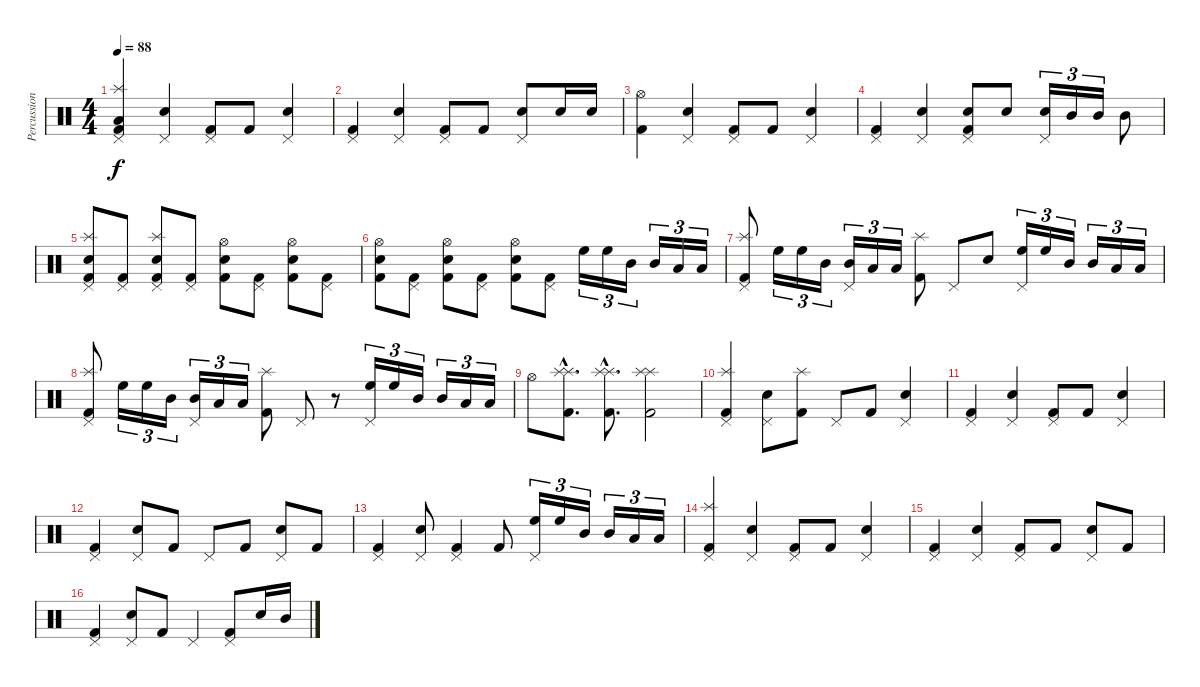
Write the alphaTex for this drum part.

\track ("Percussion" "Percussion") {instrument percussion}
\staff {score}
\articulation defaults
\ts (4 4)
\tempo 88
\clef neutral
\ks c
("Pedal Hi-Hat (hit)" "Splash (hit)" "Low Tom (hit)" "Kick (hit) 2").4{dy f} ("Pedal Hi-Hat (hit)" "Snare (hit) 2").4 ("Pedal Hi-Hat (hit)" "Kick (hit) 2").8 "Kick (hit) 2".8 ("Pedal Hi-Hat (hit)" "Snare (hit) 2").4 |
("Pedal Hi-Hat (hit)" "Kick (hit) 2").4 ("Pedal Hi-Hat (hit)" "Snare (hit) 2").4 ("Pedal Hi-Hat (hit)" "Kick (hit) 2").8 "Kick (hit) 2".8 ("Pedal Hi-Hat (hit)" "Snare (hit) 2").8 "Snare (hit) 2".16 "Snare (hit) 2".16 |
("Hi-Hat (open)" "Kick (hit) 2").4 ("Pedal Hi-Hat (hit)" "Snare (hit) 2").4 ("Pedal Hi-Hat (hit)" "Kick (hit) 2").8 "Kick (hit) 2".8 ("Pedal Hi-Hat (hit)" "Snare (hit) 2").4 |
("Pedal Hi-Hat (hit)" "Kick (hit) 2").4 ("Pedal Hi-Hat (hit)" "Snare (hit) 2").4 ("Pedal Hi-Hat (hit)" "Snare (hit) 2" "Kick (hit) 2").8 "Snare (hit) 2".8 ("Pedal Hi-Hat (hit)" "Snare (hit) 2").16{tu (3 2)} "Mid Tom (hit)".16{tu (3 2)} "Mid Tom (hit)".16{tu (3 2)} "Mid Tom (hit)".8 |
("Pedal Hi-Hat (hit)" "Splash (hit)" "Snare (hit) 2" "Kick (hit) 2").8 ("Pedal Hi-Hat (hit)" "Kick (hit) 2").8 ("Pedal Hi-Hat (hit)" "Splash (hit)" "Snare (hit) 2" "Kick (hit) 2").8 ("Pedal Hi-Hat (hit)" "Kick (hit) 2").8 ("Hi-Hat (open)" "Snare (hit) 2" "Kick (hit) 2").8 ("Pedal Hi-Hat (hit)" "Kick (hit) 2").8 ("Hi-Hat (open)" "Snare (hit) 2" "Kick (hit) 2").8 ("Pedal Hi-Hat (hit)" "Kick (hit) 2").8 |
("Hi-Hat (open)" "Snare (hit) 2" "Kick (hit) 2").8 ("Pedal Hi-Hat (hit)" "Kick (hit) 2").8 ("Hi-Hat (open)" "Snare (hit) 2" "Kick (hit) 2").8 ("Pedal Hi-Hat (hit)" "Kick (hit) 2").8 ("Hi-Hat (open)" "Snare (hit) 2" "Kick (hit) 2").8 ("Pedal Hi-Hat (hit)" "Kick (hit) 2").8 "High Floor Tom (hit)".16{tu (3 2)} "High Floor Tom (hit)".16{tu (3 2)} "Mid Tom (hit)".16{tu (3 2)} "Mid Tom (hit)".16{tu (3 2)} "Low Tom (hit)".16{tu (3 2)} "Low Tom (hit)".16{tu (3 2)} |
("Pedal Hi-Hat (hit)" "Splash (hit)" "Kick (hit) 2").8 "High Floor Tom (hit)".16{tu (3 2)} "High Floor Tom (hit)".16{tu (3 2)} "Mid Tom (hit)".16{tu (3 2)} ("Pedal Hi-Hat (hit)" "Mid Tom (hit)").16{tu (3 2)} "Low Tom (hit)".16{tu (3 2)} "Low Tom (hit)".16{tu (3 2)} ("Splash (hit)" "Kick (hit) 2").8 "Pedal Hi-Hat (hit)".8 "Snare (hit) 2".8 ("Pedal Hi-Hat (hit)" "High Floor Tom (hit)").16{tu (3 2)} "High Floor Tom (hit)".16{tu (3 2)} "Mid Tom (hit)".16{tu (3 2)} "Mid Tom (hit)".16{tu (3 2)} "Low Tom (hit)".16{tu (3 2)} "Low Tom (hit)".16{tu (3 2)} |
("Pedal Hi-Hat (hit)" "Splash (hit)" "Kick (hit) 2").8 "High Floor Tom (hit)".16{tu (3 2)} "High Floor Tom (hit)".16{tu (3 2)} "Mid Tom (hit)".16{tu (3 2)} ("Pedal Hi-Hat (hit)" "Mid Tom (hit)").16{tu (3 2)} "Low Tom (hit)".16{tu (3 2)} "Low Tom (hit)".16{tu (3 2)} ("Splash (hit)" "Kick (hit) 2").8 "Pedal Hi-Hat (hit)".8 r.8 ("Pedal Hi-Hat (hit)" "High Floor Tom (hit)").16{tu (3 2)} "High Floor Tom (hit)".16{tu (3 2)} "Mid Tom (hit)".16{tu (3 2)} "Mid Tom (hit)".16{tu (3 2)} "Low Tom (hit)".16{tu (3 2)} "Low Tom (hit)".16{tu (3 2)} |
"Hi-Hat (open)".8 ("Splash (hit)"{hac} "Splash (hit)"{hac} "Kick (hit) 2"{hac}).8{d} ("Splash (hit)"{hac} "Splash (hit)"{hac} "Kick (hit) 2"{hac}).8{d} ("Splash (hit)" "Splash (hit)" "Kick (hit) 2").2 |
("Pedal Hi-Hat (hit)" "Splash (hit)" "Kick (hit) 2").4 ("Pedal Hi-Hat (hit)" "Snare (hit) 2").8 ("Splash (hit)" "Kick (hit) 2").8 "Pedal Hi-Hat (hit)".8 "Kick (hit) 2".8 ("Pedal Hi-Hat (hit)" "Snare (hit) 2").4 |
("Pedal Hi-Hat (hit)" "Kick (hit) 2").4 ("Pedal Hi-Hat (hit)" "Snare (hit) 2").4 ("Pedal Hi-Hat (hit)" "Kick (hit) 2").8 "Kick (hit) 2".8 ("Pedal Hi-Hat (hit)" "Snare (hit) 2").4 |
("Pedal Hi-Hat (hit)" "Kick (hit) 2").4 ("Pedal Hi-Hat (hit)" "Snare (hit) 2").8 "Kick (hit) 2".8 "Pedal Hi-Hat (hit)".8 "Kick (hit) 2".8 ("Pedal Hi-Hat (hit)" "Snare (hit) 2").8 "Kick (hit) 2".8 |
("Pedal Hi-Hat (hit)" "Kick (hit) 2").4 ("Pedal Hi-Hat (hit)" "Snare (hit) 2").8 ("Pedal Hi-Hat (hit)" "Kick (hit) 2").4 "Kick (hit) 2".8 ("Pedal Hi-Hat (hit)" "High Floor Tom (hit)").16{tu (3 2)} "High Floor Tom (hit)".16{tu (3 2)} "Mid Tom (hit)".16{tu (3 2)} "Mid Tom (hit)".16{tu (3 2)} "Low Tom (hit)".16{tu (3 2)} "Low Tom (hit)".16{tu (3 2)} |
("Pedal Hi-Hat (hit)" "Splash (hit)" "Kick (hit) 2").4 ("Pedal Hi-Hat (hit)" "Snare (hit) 2").4 ("Pedal Hi-Hat (hit)" "Kick (hit) 2").8 "Kick (hit) 2".8 ("Pedal Hi-Hat (hit)" "Snare (hit) 2").4 |
("Pedal Hi-Hat (hit)" "Kick (hit) 2").4 ("Pedal Hi-Hat (hit)" "Snare (hit) 2").4 ("Pedal Hi-Hat (hit)" "Kick (hit) 2").8 "Kick (hit) 2".8 ("Pedal Hi-Hat (hit)" "Snare (hit) 2").8 "Kick (hit) 2".8 |
("Pedal Hi-Hat (hit)" "Kick (hit) 2").4 ("Pedal Hi-Hat (hit)" "Snare (hit) 2").8 "Kick (hit) 2".8 "Pedal Hi-Hat (hit)".4 ("Pedal Hi-Hat (hit)" "Kick (hit) 2").8 "Snare (hit) 2".16 "Mid Tom (hit)".16
